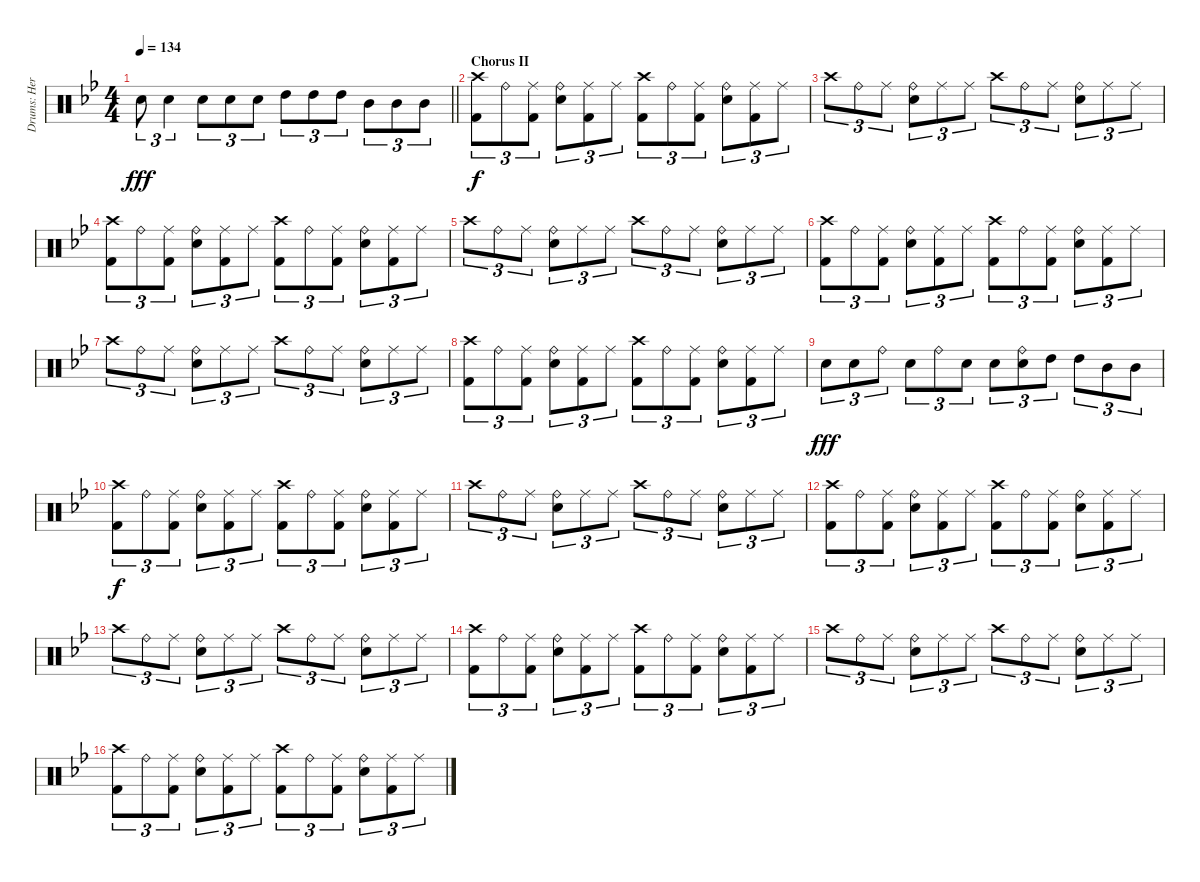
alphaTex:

\track ("Drums: Herman" "Drums: Her") {instrument percussion}
\staff {score}
\articulation defaults
\ts (4 4)
\tempo 134
\clef neutral
\barLineRight lightlight
\ks bb "Snare (hit) 2".8{tu (3 2) dy fff} "Snare (hit) 2".4{tu (3 2)} "Snare (hit) 2".8{tu (3 2)} "Snare (hit) 2".8{tu (3 2)} "Snare (hit) 2".8{tu (3 2)} "High Tom (hit)".8{tu (3 2)} "High Tom (hit)".8{tu (3 2)} "High Tom (hit)".8{tu (3 2)} "Mid Tom (hit)".8{tu (3 2)} "Mid Tom (hit)".8{tu (3 2)} "Mid Tom (hit)".8{tu (3 2)}
|
\section ("" "Chorus II")
("Crash high (hit)" "Kick (hit) 2").8{tu (3 2) dy f} "Ride (bell)".8{tu (3 2)} ("Ride (middle)" "Kick (hit) 2").8{tu (3 2)} ("Ride (bell)" "Snare (hit) 2").8{tu (3 2)} ("Ride (middle)" "Kick (hit) 2").8{tu (3 2)} "Ride (middle)".8{tu (3 2)} ("Crash high (hit)" "Kick (hit) 2").8{tu (3 2)} "Ride (bell)".8{tu (3 2)} ("Ride (middle)" "Kick (hit) 2").8{tu (3 2)} ("Ride (bell)" "Snare (hit) 2").8{tu (3 2)} ("Ride (middle)" "Kick (hit) 2").8{tu (3 2)} "Ride (middle)".8{tu (3 2)} |
"Crash high (hit)".8{tu (3 2)} "Ride (bell)".8{tu (3 2)} "Ride (middle)".8{tu (3 2)} ("Ride (bell)" "Snare (hit) 2").8{tu (3 2)} "Ride (middle)".8{tu (3 2)} "Ride (middle)".8{tu (3 2)} "Crash high (hit)".8{tu (3 2)} "Ride (bell)".8{tu (3 2)} "Ride (middle)".8{tu (3 2)} ("Ride (bell)" "Snare (hit) 2").8{tu (3 2)} "Ride (middle)".8{tu (3 2)} "Ride (middle)".8{tu (3 2)} |
("Crash high (hit)" "Kick (hit) 2").8{tu (3 2)} "Ride (bell)".8{tu (3 2)} ("Ride (middle)" "Kick (hit) 2").8{tu (3 2)} ("Ride (bell)" "Snare (hit) 2").8{tu (3 2)} ("Ride (middle)" "Kick (hit) 2").8{tu (3 2)} "Ride (middle)".8{tu (3 2)} ("Crash high (hit)" "Kick (hit) 2").8{tu (3 2)} "Ride (bell)".8{tu (3 2)} ("Ride (middle)" "Kick (hit) 2").8{tu (3 2)} ("Ride (bell)" "Snare (hit) 2").8{tu (3 2)} ("Ride (middle)" "Kick (hit) 2").8{tu (3 2)} "Ride (middle)".8{tu (3 2)} |
"Crash high (hit)".8{tu (3 2)} "Ride (bell)".8{tu (3 2)} "Ride (middle)".8{tu (3 2)} ("Ride (bell)" "Snare (hit) 2").8{tu (3 2)} "Ride (middle)".8{tu (3 2)} "Ride (middle)".8{tu (3 2)} "Crash high (hit)".8{tu (3 2)} "Ride (bell)".8{tu (3 2)} "Ride (middle)".8{tu (3 2)} ("Ride (bell)" "Snare (hit) 2").8{tu (3 2)} "Ride (middle)".8{tu (3 2)} "Ride (middle)".8{tu (3 2)} |
("Crash high (hit)" "Kick (hit) 2").8{tu (3 2)} "Ride (bell)".8{tu (3 2)} ("Ride (middle)" "Kick (hit) 2").8{tu (3 2)} ("Ride (bell)" "Snare (hit) 2").8{tu (3 2)} ("Ride (middle)" "Kick (hit) 2").8{tu (3 2)} "Ride (middle)".8{tu (3 2)} ("Crash high (hit)" "Kick (hit) 2").8{tu (3 2)} "Ride (bell)".8{tu (3 2)} ("Ride (middle)" "Kick (hit) 2").8{tu (3 2)} ("Ride (bell)" "Snare (hit) 2").8{tu (3 2)} ("Ride (middle)" "Kick (hit) 2").8{tu (3 2)} "Ride (middle)".8{tu (3 2)} |
"Crash high (hit)".8{tu (3 2)} "Ride (bell)".8{tu (3 2)} "Ride (middle)".8{tu (3 2)} ("Ride (bell)" "Snare (hit) 2").8{tu (3 2)} "Ride (middle)".8{tu (3 2)} "Ride (middle)".8{tu (3 2)} "Crash high (hit)".8{tu (3 2)} "Ride (bell)".8{tu (3 2)} "Ride (middle)".8{tu (3 2)} ("Ride (bell)" "Snare (hit) 2").8{tu (3 2)} "Ride (middle)".8{tu (3 2)} "Ride (middle)".8{tu (3 2)} |
("Crash high (hit)" "Kick (hit) 2").8{tu (3 2)} "Ride (bell)".8{tu (3 2)} ("Ride (middle)" "Kick (hit) 2").8{tu (3 2)} ("Ride (bell)" "Snare (hit) 2").8{tu (3 2)} ("Ride (middle)" "Kick (hit) 2").8{tu (3 2)} "Ride (middle)".8{tu (3 2)} ("Crash high (hit)" "Kick (hit) 2").8{tu (3 2)} "Ride (bell)".8{tu (3 2)} ("Ride (middle)" "Kick (hit) 2").8{tu (3 2)} ("Ride (bell)" "Snare (hit) 2").8{tu (3 2)} ("Ride (middle)" "Kick (hit) 2").8{tu (3 2)} "Ride (middle)".8{tu (3 2)} |
"Snare (hit) 2".8{tu (3 2) dy fff} "Snare (hit) 2".8{tu (3 2)} "Ride (bell)".8{tu (3 2)} "Snare (hit) 2".8{tu (3 2)} "Ride (bell)".8{tu (3 2)} "Snare (hit) 2".8{tu (3 2)} "Snare (hit) 2".8{tu (3 2)} ("Ride (bell)" "Snare (hit) 2").8{tu (3 2)} "High Tom (hit)".8{tu (3 2)} "High Tom (hit)".8{tu (3 2)} "Mid Tom (hit)".8{tu (3 2)} "Mid Tom (hit)".8{tu (3 2)} |
("Crash high (hit)" "Kick (hit) 2").8{tu (3 2) dy f} "Ride (bell)".8{tu (3 2)} ("Ride (middle)" "Kick (hit) 2").8{tu (3 2)} ("Ride (bell)" "Snare (hit) 2").8{tu (3 2)} ("Ride (middle)" "Kick (hit) 2").8{tu (3 2)} "Ride (middle)".8{tu (3 2)} ("Crash high (hit)" "Kick (hit) 2").8{tu (3 2)} "Ride (bell)".8{tu (3 2)} ("Ride (middle)" "Kick (hit) 2").8{tu (3 2)} ("Ride (bell)" "Snare (hit) 2").8{tu (3 2)} ("Ride (middle)" "Kick (hit) 2").8{tu (3 2)} "Ride (middle)".8{tu (3 2)} |
"Crash high (hit)".8{tu (3 2)} "Ride (bell)".8{tu (3 2)} "Ride (middle)".8{tu (3 2)} ("Ride (bell)" "Snare (hit) 2").8{tu (3 2)} "Ride (middle)".8{tu (3 2)} "Ride (middle)".8{tu (3 2)} "Crash high (hit)".8{tu (3 2)} "Ride (bell)".8{tu (3 2)} "Ride (middle)".8{tu (3 2)} ("Ride (bell)" "Snare (hit) 2").8{tu (3 2)} "Ride (middle)".8{tu (3 2)} "Ride (middle)".8{tu (3 2)} |
("Crash high (hit)" "Kick (hit) 2").8{tu (3 2)} "Ride (bell)".8{tu (3 2)} ("Ride (middle)" "Kick (hit) 2").8{tu (3 2)} ("Ride (bell)" "Snare (hit) 2").8{tu (3 2)} ("Ride (middle)" "Kick (hit) 2").8{tu (3 2)} "Ride (middle)".8{tu (3 2)} ("Crash high (hit)" "Kick (hit) 2").8{tu (3 2)} "Ride (bell)".8{tu (3 2)} ("Ride (middle)" "Kick (hit) 2").8{tu (3 2)} ("Ride (bell)" "Snare (hit) 2").8{tu (3 2)} ("Ride (middle)" "Kick (hit) 2").8{tu (3 2)} "Ride (middle)".8{tu (3 2)} |
"Crash high (hit)".8{tu (3 2)} "Ride (bell)".8{tu (3 2)} "Ride (middle)".8{tu (3 2)} ("Ride (bell)" "Snare (hit) 2").8{tu (3 2)} "Ride (middle)".8{tu (3 2)} "Ride (middle)".8{tu (3 2)} "Crash high (hit)".8{tu (3 2)} "Ride (bell)".8{tu (3 2)} "Ride (middle)".8{tu (3 2)} ("Ride (bell)" "Snare (hit) 2").8{tu (3 2)} "Ride (middle)".8{tu (3 2)} "Ride (middle)".8{tu (3 2)} |
("Crash high (hit)" "Kick (hit) 2").8{tu (3 2)} "Ride (bell)".8{tu (3 2)} ("Ride (middle)" "Kick (hit) 2").8{tu (3 2)} ("Ride (bell)" "Snare (hit) 2").8{tu (3 2)} ("Ride (middle)" "Kick (hit) 2").8{tu (3 2)} "Ride (middle)".8{tu (3 2)} ("Crash high (hit)" "Kick (hit) 2").8{tu (3 2)} "Ride (bell)".8{tu (3 2)} ("Ride (middle)" "Kick (hit) 2").8{tu (3 2)} ("Ride (bell)" "Snare (hit) 2").8{tu (3 2)} ("Ride (middle)" "Kick (hit) 2").8{tu (3 2)} "Ride (middle)".8{tu (3 2)} |
"Crash high (hit)".8{tu (3 2)} "Ride (bell)".8{tu (3 2)} "Ride (middle)".8{tu (3 2)} ("Ride (bell)" "Snare (hit) 2").8{tu (3 2)} "Ride (middle)".8{tu (3 2)} "Ride (middle)".8{tu (3 2)} "Crash high (hit)".8{tu (3 2)} "Ride (bell)".8{tu (3 2)} "Ride (middle)".8{tu (3 2)} ("Ride (bell)" "Snare (hit) 2").8{tu (3 2)} "Ride (middle)".8{tu (3 2)} "Ride (middle)".8{tu (3 2)} |
("Crash high (hit)" "Kick (hit) 2").8{tu (3 2)} "Ride (bell)".8{tu (3 2)} ("Ride (middle)" "Kick (hit) 2").8{tu (3 2)} ("Ride (bell)" "Snare (hit) 2").8{tu (3 2)} ("Ride (middle)" "Kick (hit) 2").8{tu (3 2)} "Ride (middle)".8{tu (3 2)} ("Crash high (hit)" "Kick (hit) 2").8{tu (3 2)} "Ride (bell)".8{tu (3 2)} ("Ride (middle)" "Kick (hit) 2").8{tu (3 2)} ("Ride (bell)" "Snare (hit) 2").8{tu (3 2)} ("Ride (middle)" "Kick (hit) 2").8{tu (3 2)} "Ride (middle)".8{tu (3 2)}
